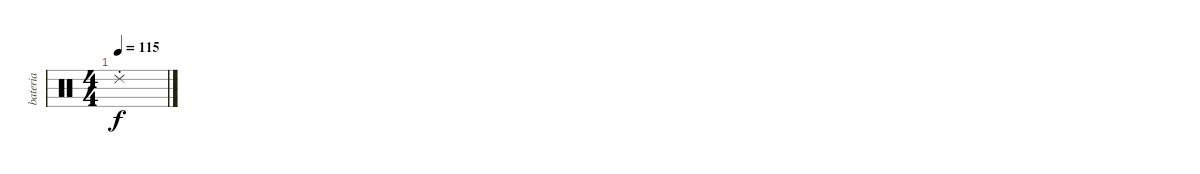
\track ("bateria" "bateria") {mute instrument percussion}
\staff {score}
\articulation defaults
\ts (4 4)
\tempo 115
\clef neutral
\ks c "Ride (choke) 2"{t}.1{dy f}
